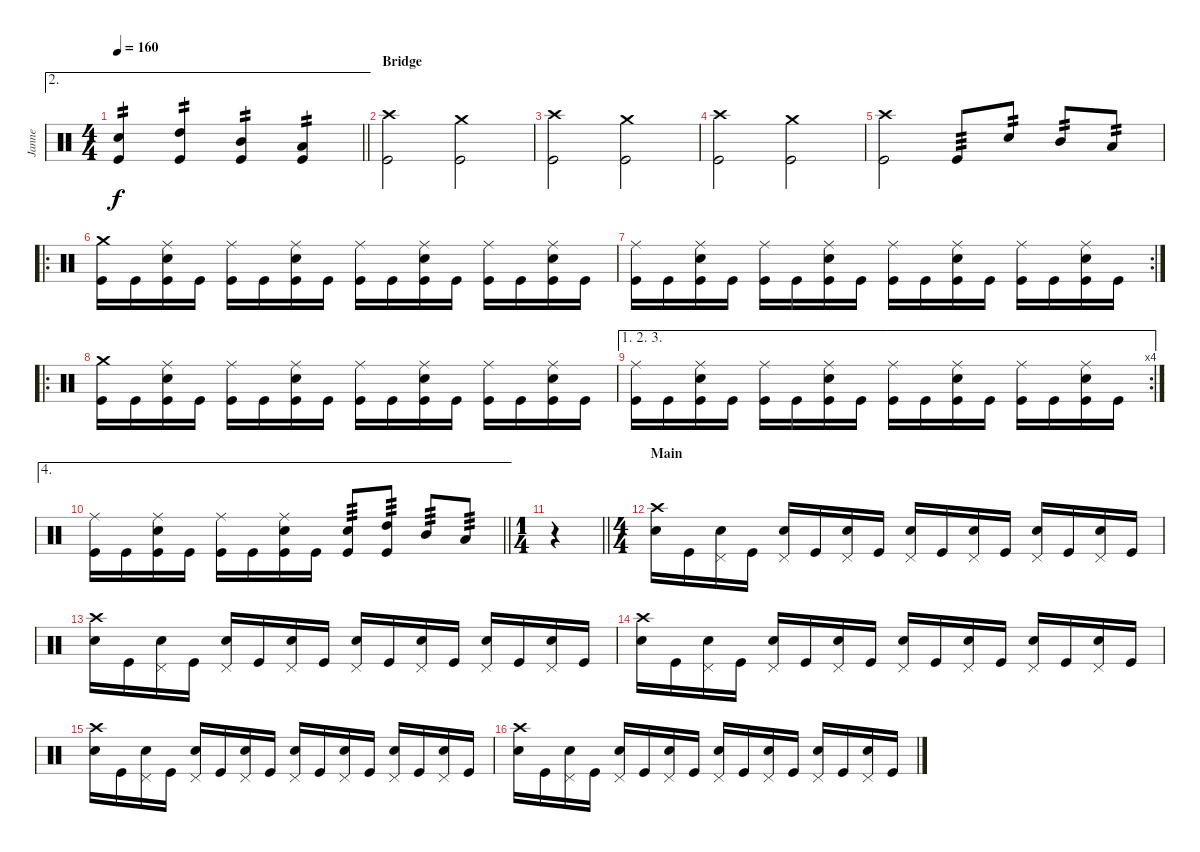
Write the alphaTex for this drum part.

\track ("Janne" "Janne") {instrument percussion}
\staff {score}
\articulation defaults
\ae 2
\ts (4 4)
\tempo 160
\clef neutral
\barLineRight lightlight
\ks c
("Snare (hit) 2" "Kick (hit)").4{tp 2 dy f} ("High Tom (hit)" "Kick (hit)").4{tp 2} ("Mid Tom (hit)" "Kick (hit)").4{tp 2} ("Low Tom (hit)" "Kick (hit)").4{tp 2} |
\section ("" "Bridge")
("Crash high (hit)" "Kick (hit)").2 ("Crash medium (hit)" "Kick (hit)").2 |
("Crash high (hit)" "Kick (hit)").2 ("Crash medium (hit)" "Kick (hit)").2 |
("Crash high (hit)" "Kick (hit)").2 ("Crash medium (hit)" "Kick (hit)").2 |
("Crash high (hit)" "Kick (hit)").2 "Kick (hit)".8{tp 3} "Snare (hit) 2".8{tp 2} "Mid Tom (hit)".8{tp 2} "Low Tom (hit)".8{tp 2} |
\ro
("Crash medium (hit)" "Kick (hit)").16 "Kick (hit)".16 ("Ride (middle)" "Snare (hit) 2" "Kick (hit)").16 "Kick (hit)".16 ("Ride (middle)" "Kick (hit)").16 "Kick (hit)".16 ("Ride (middle)" "Snare (hit) 2" "Kick (hit)").16 "Kick (hit)".16 ("Ride (middle)" "Kick (hit)").16 "Kick (hit)".16 ("Ride (middle)" "Snare (hit) 2" "Kick (hit)").16 "Kick (hit)".16 ("Ride (middle)" "Kick (hit)").16 "Kick (hit)".16 ("Ride (middle)" "Snare (hit) 2" "Kick (hit)").16 "Kick (hit)".16 |
\rc 2
("Ride (middle)" "Kick (hit)").16 "Kick (hit)".16 ("Ride (middle)" "Snare (hit) 2" "Kick (hit)").16 "Kick (hit)".16 ("Ride (middle)" "Kick (hit)").16 "Kick (hit)".16 ("Ride (middle)" "Snare (hit) 2" "Kick (hit)").16 "Kick (hit)".16 ("Ride (middle)" "Kick (hit)").16 "Kick (hit)".16 ("Ride (middle)" "Snare (hit) 2" "Kick (hit)").16 "Kick (hit)".16 ("Ride (middle)" "Kick (hit)").16 "Kick (hit)".16 ("Ride (middle)" "Snare (hit) 2" "Kick (hit)").16 "Kick (hit)".16 |
\ro
("Crash medium (hit)" "Kick (hit)").16 "Kick (hit)".16 ("Ride (middle)" "Snare (hit) 2" "Kick (hit)").16 "Kick (hit)".16 ("Ride (middle)" "Kick (hit)").16 "Kick (hit)".16 ("Ride (middle)" "Snare (hit) 2" "Kick (hit)").16 "Kick (hit)".16 ("Ride (middle)" "Kick (hit)").16 "Kick (hit)".16 ("Ride (middle)" "Snare (hit) 2" "Kick (hit)").16 "Kick (hit)".16 ("Ride (middle)" "Kick (hit)").16 "Kick (hit)".16 ("Ride (middle)" "Snare (hit) 2" "Kick (hit)").16 "Kick (hit)".16 |
\ae (1 2 3)
\rc 4
("Ride (middle)" "Kick (hit)").16 "Kick (hit)".16 ("Ride (middle)" "Snare (hit) 2" "Kick (hit)").16 "Kick (hit)".16 ("Ride (middle)" "Kick (hit)").16 "Kick (hit)".16 ("Ride (middle)" "Snare (hit) 2" "Kick (hit)").16 "Kick (hit)".16 ("Ride (middle)" "Kick (hit)").16 "Kick (hit)".16 ("Ride (middle)" "Snare (hit) 2" "Kick (hit)").16 "Kick (hit)".16 ("Ride (middle)" "Kick (hit)").16 "Kick (hit)".16 ("Ride (middle)" "Snare (hit) 2" "Kick (hit)").16 "Kick (hit)".16 |
\ae 4
\barLineRight lightlight
("Ride (middle)" "Kick (hit)").16 "Kick (hit)".16 ("Ride (middle)" "Snare (hit) 2" "Kick (hit)").16 "Kick (hit)".16 ("Ride (middle)" "Kick (hit)").16 "Kick (hit)".16 ("Ride (middle)" "Snare (hit) 2" "Kick (hit)").16 "Kick (hit)".16 ("Snare (hit) 2" "Kick (hit)").8{tp 3} ("High Tom (hit)" "Kick (hit)").8{tp 3} "Mid Tom (hit)".8{tp 3} "Low Tom (hit)".8{tp 3} |
\ts (1 4)
\barLineRight lightlight
r.4 |
\ts (4 4)
\section ("" "Main")
("Crash high (hit)" "Snare (hit) 2").16 "Kick (hit)".16 ("Pedal Hi-Hat (hit)" "Snare (hit) 2").16 "Kick (hit)".16 ("Pedal Hi-Hat (hit)" "Snare (hit) 2").16 "Kick (hit)".16 ("Pedal Hi-Hat (hit)" "Snare (hit) 2").16 "Kick (hit)".16 ("Pedal Hi-Hat (hit)" "Snare (hit) 2").16 "Kick (hit)".16 ("Pedal Hi-Hat (hit)" "Snare (hit) 2").16 "Kick (hit)".16 ("Pedal Hi-Hat (hit)" "Snare (hit) 2").16 "Kick (hit)".16 ("Pedal Hi-Hat (hit)" "Snare (hit) 2").16 "Kick (hit)".16 |
("Crash high (hit)" "Snare (hit) 2").16 "Kick (hit)".16 ("Pedal Hi-Hat (hit)" "Snare (hit) 2").16 "Kick (hit)".16 ("Pedal Hi-Hat (hit)" "Snare (hit) 2").16 "Kick (hit)".16 ("Pedal Hi-Hat (hit)" "Snare (hit) 2").16 "Kick (hit)".16 ("Pedal Hi-Hat (hit)" "Snare (hit) 2").16 "Kick (hit)".16 ("Pedal Hi-Hat (hit)" "Snare (hit) 2").16 "Kick (hit)".16 ("Pedal Hi-Hat (hit)" "Snare (hit) 2").16 "Kick (hit)".16 ("Pedal Hi-Hat (hit)" "Snare (hit) 2").16 "Kick (hit)".16 |
("Crash high (hit)" "Snare (hit) 2").16 "Kick (hit)".16 ("Pedal Hi-Hat (hit)" "Snare (hit) 2").16 "Kick (hit)".16 ("Pedal Hi-Hat (hit)" "Snare (hit) 2").16 "Kick (hit)".16 ("Pedal Hi-Hat (hit)" "Snare (hit) 2").16 "Kick (hit)".16 ("Pedal Hi-Hat (hit)" "Snare (hit) 2").16 "Kick (hit)".16 ("Pedal Hi-Hat (hit)" "Snare (hit) 2").16 "Kick (hit)".16 ("Pedal Hi-Hat (hit)" "Snare (hit) 2").16 "Kick (hit)".16 ("Pedal Hi-Hat (hit)" "Snare (hit) 2").16 "Kick (hit)".16 |
("Crash high (hit)" "Snare (hit) 2").16 "Kick (hit)".16 ("Pedal Hi-Hat (hit)" "Snare (hit) 2").16 "Kick (hit)".16 ("Pedal Hi-Hat (hit)" "Snare (hit) 2").16 "Kick (hit)".16 ("Pedal Hi-Hat (hit)" "Snare (hit) 2").16 "Kick (hit)".16 ("Pedal Hi-Hat (hit)" "Snare (hit) 2").16 "Kick (hit)".16 ("Pedal Hi-Hat (hit)" "Snare (hit) 2").16 "Kick (hit)".16 ("Pedal Hi-Hat (hit)" "Snare (hit) 2").16 "Kick (hit)".16 ("Pedal Hi-Hat (hit)" "Snare (hit) 2").16 "Kick (hit)".16 |
("Crash high (hit)" "Snare (hit) 2").16 "Kick (hit)".16 ("Pedal Hi-Hat (hit)" "Snare (hit) 2").16 "Kick (hit)".16 ("Pedal Hi-Hat (hit)" "Snare (hit) 2").16 "Kick (hit)".16 ("Pedal Hi-Hat (hit)" "Snare (hit) 2").16 "Kick (hit)".16 ("Pedal Hi-Hat (hit)" "Snare (hit) 2").16 "Kick (hit)".16 ("Pedal Hi-Hat (hit)" "Snare (hit) 2").16 "Kick (hit)".16 ("Pedal Hi-Hat (hit)" "Snare (hit) 2").16 "Kick (hit)".16 ("Pedal Hi-Hat (hit)" "Snare (hit) 2").16 "Kick (hit)".16
